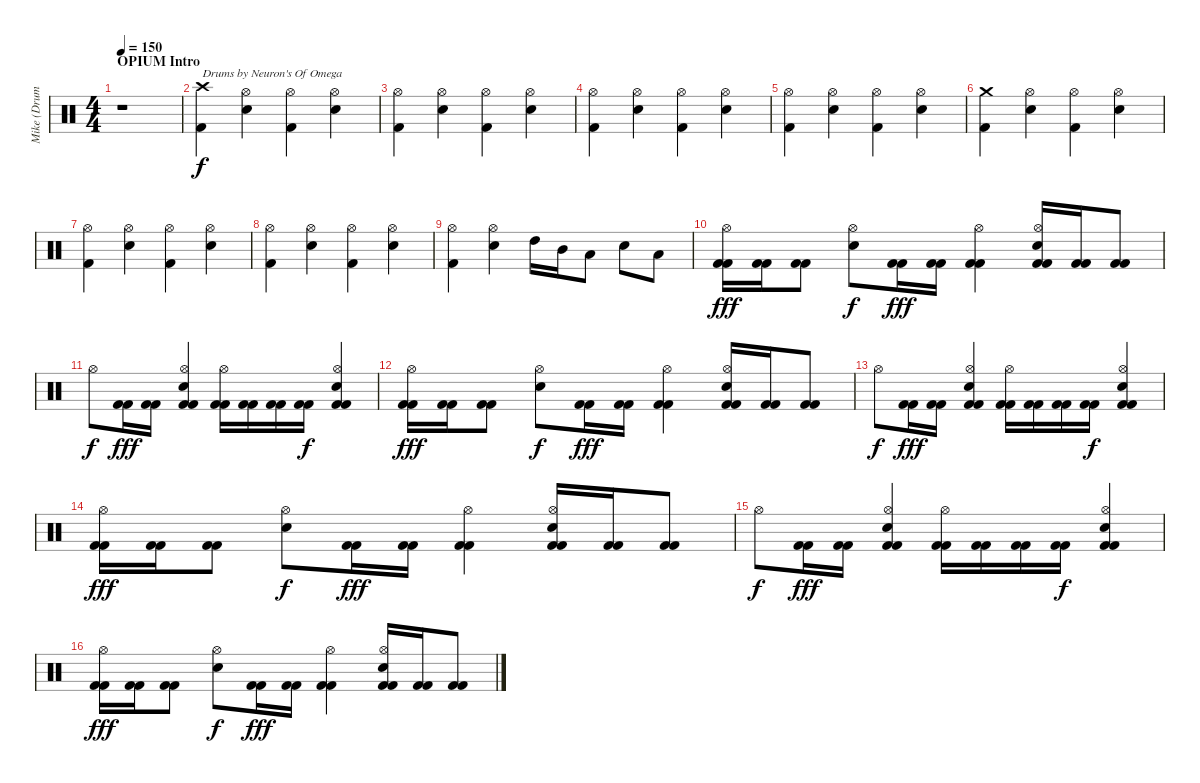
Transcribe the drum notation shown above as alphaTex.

\track ("Mike (Drums)" "Mike (Drum") {instrument percussion}
\staff {score}
\articulation defaults
\ts (4 4)
\section ("" "OPIUM Intro")
\tempo 150
\clef neutral
\ks c
r.1{dy f} |
("Crash high (hit)" "Kick (hit) 2").4{txt "Drums by Neuron's Of Omega"} ("Hi-Hat (open)" "Snare (hit) 2").4 ("Hi-Hat (open)" "Kick (hit) 2").4 ("Hi-Hat (open)" "Snare (hit) 2").4 |
("Hi-Hat (open)" "Kick (hit) 2").4 ("Hi-Hat (open)" "Snare (hit) 2").4 ("Hi-Hat (open)" "Kick (hit) 2").4 ("Hi-Hat (open)" "Snare (hit) 2").4 |
("Hi-Hat (open)" "Kick (hit) 2").4 ("Hi-Hat (open)" "Snare (hit) 2").4 ("Hi-Hat (open)" "Kick (hit) 2").4 ("Hi-Hat (open)" "Snare (hit) 2").4 |
("Hi-Hat (open)" "Kick (hit) 2").4 ("Hi-Hat (open)" "Snare (hit) 2").4 ("Hi-Hat (open)" "Kick (hit) 2").4 ("Hi-Hat (open)" "Snare (hit) 2").4 |
("Crash medium (hit)" "Kick (hit) 2").4 ("Hi-Hat (open)" "Snare (hit) 2").4 ("Hi-Hat (open)" "Kick (hit) 2").4 ("Hi-Hat (open)" "Snare (hit) 2").4 |
("Hi-Hat (open)" "Kick (hit) 2").4 ("Hi-Hat (open)" "Snare (hit) 2").4 ("Hi-Hat (open)" "Kick (hit) 2").4 ("Hi-Hat (open)" "Snare (hit) 2").4 |
("Hi-Hat (open)" "Kick (hit) 2").4 ("Hi-Hat (open)" "Snare (hit) 2").4 ("Hi-Hat (open)" "Kick (hit) 2").4 ("Hi-Hat (open)" "Snare (hit) 2").4 |
("Hi-Hat (open)" "Kick (hit) 2").4 ("Hi-Hat (open)" "Snare (hit) 2").4 "High Tom (hit)".16 "Mid Tom (hit)".16 "Low Tom (hit)".8 "Snare (hit) 2".8 "Low Tom (hit)".8 |
("Hi-Hat (open)" "Kick (hit) 2" "Kick (hit) 2").16{dy fff} ("Kick (hit) 2" "Kick (hit) 2").16 ("Kick (hit) 2" "Kick (hit) 2").8 ("Hi-Hat (open)" "Snare (hit) 2").8{dy f} ("Kick (hit) 2" "Kick (hit) 2").16{dy fff} ("Kick (hit) 2" "Kick (hit) 2").16 ("Hi-Hat (open)" "Kick (hit) 2" "Kick (hit) 2").4 ("Hi-Hat (open)" "Snare (hit) 2" "Kick (hit) 2" "Kick (hit) 2").16 ("Kick (hit) 2" "Kick (hit) 2").16 ("Kick (hit) 2" "Kick (hit) 2").8 |
"Hi-Hat (open)".8{dy f} ("Kick (hit) 2" "Kick (hit) 2").16{dy fff} ("Kick (hit) 2" "Kick (hit) 2").16 ("Hi-Hat (open)" "Snare (hit) 2" "Kick (hit) 2" "Kick (hit) 2").4 ("Hi-Hat (open)" "Kick (hit) 2" "Kick (hit) 2").16 ("Kick (hit) 2" "Kick (hit) 2").16 ("Kick (hit) 2" "Kick (hit) 2").16 ("Kick (hit) 2" "Kick (hit) 2").16{dy f} ("Hi-Hat (open)" "Snare (hit) 2" "Kick (hit) 2" "Kick (hit) 2").4 |
("Hi-Hat (open)" "Kick (hit) 2" "Kick (hit) 2").16{dy fff} ("Kick (hit) 2" "Kick (hit) 2").16 ("Kick (hit) 2" "Kick (hit) 2").8 ("Hi-Hat (open)" "Snare (hit) 2").8{dy f} ("Kick (hit) 2" "Kick (hit) 2").16{dy fff} ("Kick (hit) 2" "Kick (hit) 2").16 ("Hi-Hat (open)" "Kick (hit) 2" "Kick (hit) 2").4 ("Hi-Hat (open)" "Snare (hit) 2" "Kick (hit) 2" "Kick (hit) 2").16 ("Kick (hit) 2" "Kick (hit) 2").16 ("Kick (hit) 2" "Kick (hit) 2").8 |
"Hi-Hat (open)".8{dy f} ("Kick (hit) 2" "Kick (hit) 2").16{dy fff} ("Kick (hit) 2" "Kick (hit) 2").16 ("Hi-Hat (open)" "Snare (hit) 2" "Kick (hit) 2" "Kick (hit) 2").4 ("Hi-Hat (open)" "Kick (hit) 2" "Kick (hit) 2").16 ("Kick (hit) 2" "Kick (hit) 2").16 ("Kick (hit) 2" "Kick (hit) 2").16 ("Kick (hit) 2" "Kick (hit) 2").16{dy f} ("Hi-Hat (open)" "Snare (hit) 2" "Kick (hit) 2" "Kick (hit) 2").4 |
("Hi-Hat (open)" "Kick (hit) 2" "Kick (hit) 2").16{dy fff} ("Kick (hit) 2" "Kick (hit) 2").16 ("Kick (hit) 2" "Kick (hit) 2").8 ("Hi-Hat (open)" "Snare (hit) 2").8{dy f} ("Kick (hit) 2" "Kick (hit) 2").16{dy fff} ("Kick (hit) 2" "Kick (hit) 2").16 ("Hi-Hat (open)" "Kick (hit) 2" "Kick (hit) 2").4 ("Hi-Hat (open)" "Snare (hit) 2" "Kick (hit) 2" "Kick (hit) 2").16 ("Kick (hit) 2" "Kick (hit) 2").16 ("Kick (hit) 2" "Kick (hit) 2").8 |
"Hi-Hat (open)".8{dy f} ("Kick (hit) 2" "Kick (hit) 2").16{dy fff} ("Kick (hit) 2" "Kick (hit) 2").16 ("Hi-Hat (open)" "Snare (hit) 2" "Kick (hit) 2" "Kick (hit) 2").4 ("Hi-Hat (open)" "Kick (hit) 2" "Kick (hit) 2").16 ("Kick (hit) 2" "Kick (hit) 2").16 ("Kick (hit) 2" "Kick (hit) 2").16 ("Kick (hit) 2" "Kick (hit) 2").16{dy f} ("Hi-Hat (open)" "Snare (hit) 2" "Kick (hit) 2" "Kick (hit) 2").4 |
("Hi-Hat (open)" "Kick (hit) 2" "Kick (hit) 2").16{dy fff} ("Kick (hit) 2" "Kick (hit) 2").16 ("Kick (hit) 2" "Kick (hit) 2").8 ("Hi-Hat (open)" "Snare (hit) 2").8{dy f} ("Kick (hit) 2" "Kick (hit) 2").16{dy fff} ("Kick (hit) 2" "Kick (hit) 2").16 ("Hi-Hat (open)" "Kick (hit) 2" "Kick (hit) 2").4 ("Hi-Hat (open)" "Snare (hit) 2" "Kick (hit) 2" "Kick (hit) 2").16 ("Kick (hit) 2" "Kick (hit) 2").16 ("Kick (hit) 2" "Kick (hit) 2").8
